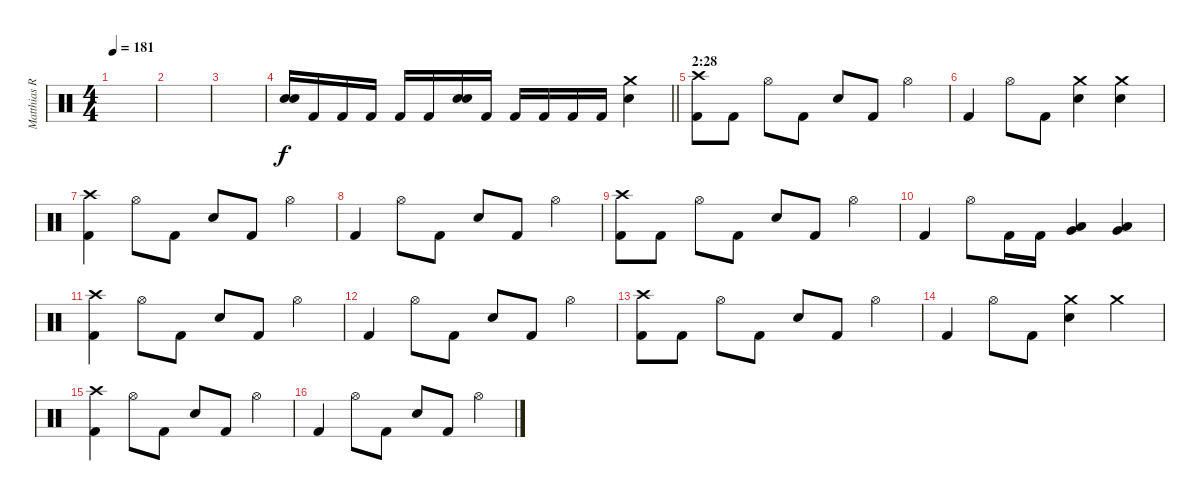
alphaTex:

\track ("Matthias R." "Matthias R") {instrument percussion}
\staff {score}
\articulation defaults
\ts (4 4)
\tempo 181
\clef neutral
\ks c
|
|
|
\barLineRight lightlight
("Snare (hit) 2" "Snare (hit) 2").16 "Kick (hit) 2".16 "Kick (hit) 2".16 "Kick (hit) 2".16 "Kick (hit) 2".16 "Kick (hit) 2".16 ("Snare (hit) 2" "Snare (hit) 2").16 "Kick (hit) 2".16 "Kick (hit) 2".16 "Kick (hit) 2".16 "Kick (hit) 2".16 "Kick (hit) 2".16 ("Snare (hit) 2" "Crash medium (hit)").4 |
\section ("" "2:28")
("Kick (hit) 2" "Crash high (hit)").8 "Kick (hit) 2".8 "Hi-Hat (open)".8 "Kick (hit) 2".8 "Snare (hit) 2".8 "Kick (hit) 2".8 "Hi-Hat (open)".4 |
"Kick (hit) 2".4 "Hi-Hat (open)".8 "Kick (hit) 2".8 ("Snare (hit) 2" "Crash medium (hit)").4 ("Snare (hit) 2" "Crash medium (hit)").4 |
("Kick (hit) 2" "Crash high (hit)").4 "Hi-Hat (open)".8 "Kick (hit) 2".8 "Snare (hit) 2".8 "Kick (hit) 2".8 "Hi-Hat (open)".4 |
"Kick (hit) 2".4 "Hi-Hat (open)".8 "Kick (hit) 2".8 "Snare (hit) 2".8 "Kick (hit) 2".8 "Hi-Hat (open)".4 |
("Kick (hit) 2" "Crash high (hit)").8 "Kick (hit) 2".8 "Hi-Hat (open)".8 "Kick (hit) 2".8 "Snare (hit) 2".8 "Kick (hit) 2".8 "Hi-Hat (open)".4 |
"Kick (hit) 2".4 "Hi-Hat (open)".8 "Kick (hit) 2".16 "Kick (hit) 2".16 ("Low Tom (hit)" "Very Low Tom (hit)").4 ("Low Tom (hit)" "Very Low Tom (hit)").4 |
("Kick (hit) 2" "Crash high (hit)").4 "Hi-Hat (open)".8 "Kick (hit) 2".8 "Snare (hit) 2".8 "Kick (hit) 2".8 "Hi-Hat (open)".4 |
"Kick (hit) 2".4 "Hi-Hat (open)".8 "Kick (hit) 2".8 "Snare (hit) 2".8 "Kick (hit) 2".8 "Hi-Hat (open)".4 |
("Kick (hit) 2" "Crash high (hit)").8 "Kick (hit) 2".8 "Hi-Hat (open)".8 "Kick (hit) 2".8 "Snare (hit) 2".8 "Kick (hit) 2".8 "Hi-Hat (open)".4 |
"Kick (hit) 2".4 "Hi-Hat (open)".8 "Kick (hit) 2".8 ("Snare (hit) 2" "Crash medium (hit)").4 "Crash medium (hit)".4 |
("Kick (hit) 2" "Crash high (hit)").4 "Hi-Hat (open)".8 "Kick (hit) 2".8 "Snare (hit) 2".8 "Kick (hit) 2".8 "Hi-Hat (open)".4 |
"Kick (hit) 2".4 "Hi-Hat (open)".8 "Kick (hit) 2".8 "Snare (hit) 2".8 "Kick (hit) 2".8 "Hi-Hat (open)".4
